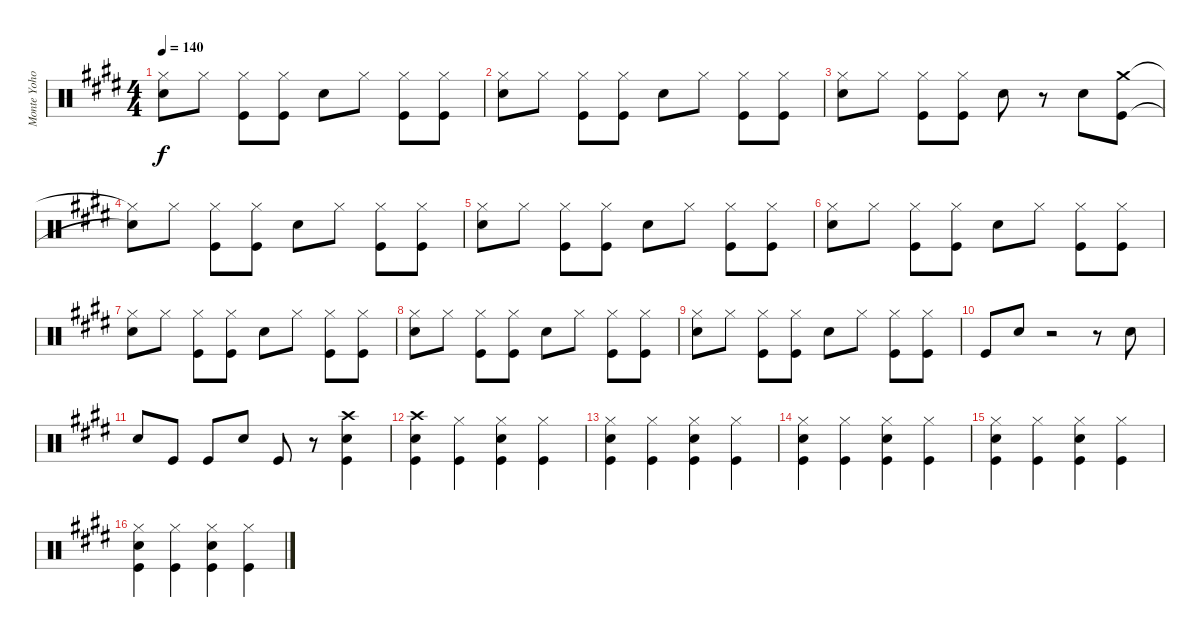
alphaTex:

\track ("Monte Yoho Drums" "Monte Yoho") {instrument percussion}
\staff {score}
\articulation defaults
\ts (4 4)
\tempo 140
\clef neutral
\ks e
("Hi-Hat (closed)" "Snare (hit) 2").8{dy f} "Hi-Hat (closed)".8 ("Hi-Hat (closed)" "Kick (hit)").8 ("Hi-Hat (closed)" "Kick (hit)").8 "Snare (hit) 2".8 "Hi-Hat (closed)".8 ("Hi-Hat (closed)" "Kick (hit)").8 ("Hi-Hat (closed)" "Kick (hit)").8 |
("Hi-Hat (closed)" "Snare (hit) 2").8 "Hi-Hat (closed)".8 ("Hi-Hat (closed)" "Kick (hit)").8 ("Hi-Hat (closed)" "Kick (hit)").8 "Snare (hit) 2".8 "Hi-Hat (closed)".8 ("Hi-Hat (closed)" "Kick (hit)").8 ("Hi-Hat (closed)" "Kick (hit)").8 |
("Hi-Hat (closed)" "Snare (hit) 2").8 "Hi-Hat (closed)".8 ("Hi-Hat (closed)" "Kick (hit)").8 ("Hi-Hat (closed)" "Kick (hit)").8 "Snare (hit) 2".8 r.8 "Snare (hit) 2".8 ("Crash medium (hit)" "Kick (hit)").8 |
("Hi-Hat (closed)"{t} "Snare (hit)"{t}).8 "Hi-Hat (closed)".8 ("Hi-Hat (closed)" "Kick (hit)").8 ("Hi-Hat (closed)" "Kick (hit)").8 "Snare (hit) 2".8 "Hi-Hat (closed)".8 ("Hi-Hat (closed)" "Kick (hit)").8 ("Hi-Hat (closed)" "Kick (hit)").8 |
("Hi-Hat (closed)" "Snare (hit) 2").8 "Hi-Hat (closed)".8 ("Hi-Hat (closed)" "Kick (hit)").8 ("Hi-Hat (closed)" "Kick (hit)").8 "Snare (hit) 2".8 "Hi-Hat (closed)".8 ("Hi-Hat (closed)" "Kick (hit)").8 ("Hi-Hat (closed)" "Kick (hit)").8 |
("Hi-Hat (closed)" "Snare (hit) 2").8 "Hi-Hat (closed)".8 ("Hi-Hat (closed)" "Kick (hit)").8 ("Hi-Hat (closed)" "Kick (hit)").8 "Snare (hit) 2".8 "Hi-Hat (closed)".8 ("Hi-Hat (closed)" "Kick (hit)").8 ("Hi-Hat (closed)" "Kick (hit)").8 |
("Hi-Hat (closed)" "Snare (hit) 2").8 "Hi-Hat (closed)".8 ("Hi-Hat (closed)" "Kick (hit)").8 ("Hi-Hat (closed)" "Kick (hit)").8 "Snare (hit) 2".8 "Hi-Hat (closed)".8 ("Hi-Hat (closed)" "Kick (hit)").8 ("Hi-Hat (closed)" "Kick (hit)").8 |
("Hi-Hat (closed)" "Snare (hit) 2").8 "Hi-Hat (closed)".8 ("Hi-Hat (closed)" "Kick (hit)").8 ("Hi-Hat (closed)" "Kick (hit)").8 "Snare (hit) 2".8 "Hi-Hat (closed)".8 ("Hi-Hat (closed)" "Kick (hit)").8 ("Hi-Hat (closed)" "Kick (hit)").8 |
("Hi-Hat (closed)" "Snare (hit) 2").8 "Hi-Hat (closed)".8 ("Hi-Hat (closed)" "Kick (hit)").8 ("Hi-Hat (closed)" "Kick (hit)").8 "Snare (hit) 2".8 "Hi-Hat (closed)".8 ("Hi-Hat (closed)" "Kick (hit)").8 ("Hi-Hat (closed)" "Kick (hit)").8 |
"Kick (hit)".8 "Snare (hit) 2".8 r.2 r.8 "Snare (hit) 2".8 |
"Snare (hit) 2".8 "Kick (hit)".8 "Kick (hit)".8 "Snare (hit) 2".8 "Kick (hit)".8 r.8 ("Crash high (hit)" "Snare (hit) 2" "Kick (hit)").4 |
("Crash high (hit)" "Snare (hit) 2" "Kick (hit)").4 ("Hi-Hat (closed)" "Kick (hit)").4 ("Hi-Hat (closed)" "Snare (hit) 2" "Kick (hit)").4 ("Hi-Hat (closed)" "Kick (hit)").4 |
("Hi-Hat (closed)" "Snare (hit) 2" "Kick (hit)").4 ("Hi-Hat (closed)" "Kick (hit)").4 ("Hi-Hat (closed)" "Snare (hit) 2" "Kick (hit)").4 ("Hi-Hat (closed)" "Kick (hit)").4 |
("Hi-Hat (closed)" "Snare (hit) 2" "Kick (hit)").4 ("Hi-Hat (closed)" "Kick (hit)").4 ("Hi-Hat (closed)" "Snare (hit) 2" "Kick (hit)").4 ("Hi-Hat (closed)" "Kick (hit)").4 |
("Hi-Hat (closed)" "Snare (hit) 2" "Kick (hit)").4 ("Hi-Hat (closed)" "Kick (hit)").4 ("Hi-Hat (closed)" "Snare (hit) 2" "Kick (hit)").4 ("Hi-Hat (closed)" "Kick (hit)").4 |
("Hi-Hat (closed)" "Snare (hit) 2" "Kick (hit)").4 ("Hi-Hat (closed)" "Kick (hit)").4 ("Hi-Hat (closed)" "Snare (hit) 2" "Kick (hit)").4 ("Hi-Hat (closed)" "Kick (hit)").4
